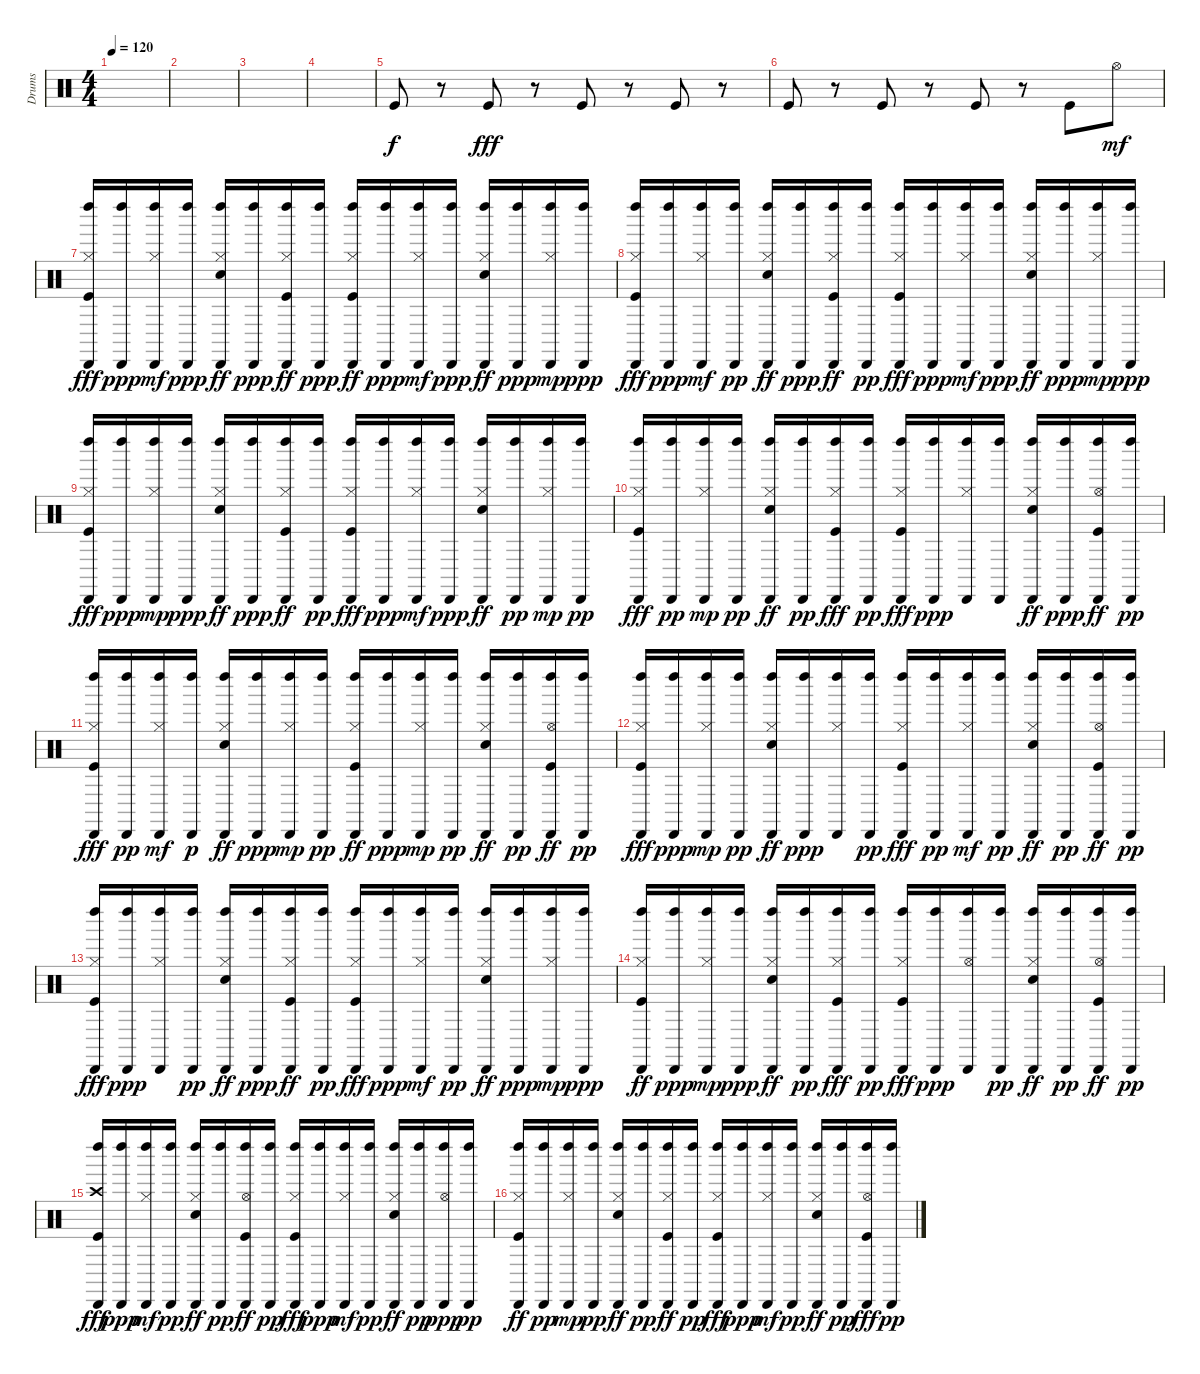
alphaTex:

\track ("Drums" "Drums") {instrument percussion}
\staff {score}
\articulation defaults
\ts (4 4)
\tempo 120
\clef neutral
\ks c
|
|
|
|
"Kick (hit)".8 r.8 "Kick (hit)".8{dy fff} r.8 "Kick (hit)".8 r.8 "Kick (hit)".8 r.8 |
"Kick (hit)".8 r.8 "Kick (hit)".8 r.8 "Kick (hit)".8 r.8 "Kick (hit)".8 "Hi-Hat (open)".8{dy mf} |
("Left Maraca (hit)" "Cabasa (hit)" "Hi-Hat (closed)" "Kick (hit)").16{dy fff} ("Left Maraca (hit)" "Cabasa (hit)").16{dy ppp} ("Left Maraca (hit)" "Cabasa (hit)" "Hi-Hat (closed)").16{dy mf} ("Left Maraca (hit)" "Cabasa (hit)").16{dy ppp} ("Left Maraca (hit)" "Cabasa (hit)" "Hi-Hat (closed)" "Electric Snare (hit)").16{dy ff} ("Left Maraca (hit)" "Cabasa (hit)").16{dy ppp} ("Left Maraca (hit)" "Cabasa (hit)" "Hi-Hat (closed)" "Kick (hit)").16{dy ff} ("Left Maraca (hit)" "Cabasa (hit)").16{dy ppp} ("Left Maraca (hit)" "Cabasa (hit)" "Hi-Hat (closed)" "Kick (hit)").16{dy ff} ("Left Maraca (hit)" "Cabasa (hit)").16{dy ppp} ("Left Maraca (hit)" "Cabasa (hit)" "Hi-Hat (closed)").16{dy mf} ("Left Maraca (hit)" "Cabasa (hit)").16{dy ppp} ("Left Maraca (hit)" "Cabasa (hit)" "Hi-Hat (closed)" "Electric Snare (hit)").16{dy ff} ("Left Maraca (hit)" "Cabasa (hit)").16{dy ppp} ("Left Maraca (hit)" "Cabasa (hit)" "Hi-Hat (closed)").16{dy mp} ("Left Maraca (hit)" "Cabasa (hit)").16{dy ppp} |
("Left Maraca (hit)" "Cabasa (hit)" "Hi-Hat (closed)" "Kick (hit)").16{dy fff} ("Left Maraca (hit)" "Cabasa (hit)").16{dy ppp} ("Left Maraca (hit)" "Cabasa (hit)" "Hi-Hat (closed)").16{dy mf} ("Left Maraca (hit)" "Cabasa (hit)").16{dy pp} ("Left Maraca (hit)" "Cabasa (hit)" "Hi-Hat (closed)" "Electric Snare (hit)").16{dy ff} ("Left Maraca (hit)" "Cabasa (hit)").16{dy ppp} ("Left Maraca (hit)" "Cabasa (hit)" "Hi-Hat (closed)" "Kick (hit)").16{dy ff} ("Left Maraca (hit)" "Cabasa (hit)").16{dy pp} ("Left Maraca (hit)" "Cabasa (hit)" "Hi-Hat (closed)" "Kick (hit)").16{dy fff} ("Left Maraca (hit)" "Cabasa (hit)").16{dy ppp} ("Left Maraca (hit)" "Cabasa (hit)" "Hi-Hat (closed)").16{dy mf} ("Left Maraca (hit)" "Cabasa (hit)").16{dy ppp} ("Left Maraca (hit)" "Cabasa (hit)" "Hi-Hat (closed)" "Electric Snare (hit)").16{dy ff} ("Left Maraca (hit)" "Cabasa (hit)").16{dy ppp} ("Left Maraca (hit)" "Cabasa (hit)" "Hi-Hat (closed)").16{dy mp} ("Left Maraca (hit)" "Cabasa (hit)").16{dy ppp} |
("Left Maraca (hit)" "Cabasa (hit)" "Hi-Hat (closed)" "Kick (hit)").16{dy fff} ("Left Maraca (hit)" "Cabasa (hit)").16{dy ppp} ("Left Maraca (hit)" "Cabasa (hit)" "Hi-Hat (closed)").16{dy mp} ("Left Maraca (hit)" "Cabasa (hit)").16{dy ppp} ("Left Maraca (hit)" "Cabasa (hit)" "Hi-Hat (closed)" "Electric Snare (hit)").16{dy ff} ("Left Maraca (hit)" "Cabasa (hit)").16{dy ppp} ("Left Maraca (hit)" "Cabasa (hit)" "Hi-Hat (closed)" "Kick (hit)").16{dy ff} ("Left Maraca (hit)" "Cabasa (hit)").16{dy pp} ("Left Maraca (hit)" "Cabasa (hit)" "Hi-Hat (closed)" "Kick (hit)").16{dy fff} ("Left Maraca (hit)" "Cabasa (hit)").16{dy ppp} ("Left Maraca (hit)" "Cabasa (hit)" "Hi-Hat (closed)").16{dy mf} ("Left Maraca (hit)" "Cabasa (hit)").16{dy ppp} ("Left Maraca (hit)" "Cabasa (hit)" "Hi-Hat (closed)" "Electric Snare (hit)").16{dy ff} ("Left Maraca (hit)" "Cabasa (hit)").16{dy pp} ("Left Maraca (hit)" "Cabasa (hit)" "Hi-Hat (closed)").16{dy mp} ("Left Maraca (hit)" "Cabasa (hit)").16{dy pp} |
("Left Maraca (hit)" "Cabasa (hit)" "Hi-Hat (closed)" "Kick (hit)").16{dy fff} ("Left Maraca (hit)" "Cabasa (hit)").16{dy pp} ("Left Maraca (hit)" "Cabasa (hit)" "Hi-Hat (closed)").16{dy mp} ("Left Maraca (hit)" "Cabasa (hit)").16{dy pp} ("Left Maraca (hit)" "Cabasa (hit)" "Hi-Hat (closed)" "Electric Snare (hit)").16{dy ff} ("Left Maraca (hit)" "Cabasa (hit)").16{dy pp} ("Left Maraca (hit)" "Cabasa (hit)" "Hi-Hat (closed)" "Kick (hit)").16{dy fff} ("Left Maraca (hit)" "Cabasa (hit)").16{dy pp} ("Left Maraca (hit)" "Cabasa (hit)" "Hi-Hat (closed)" "Kick (hit)").16{dy fff} ("Left Maraca (hit)" "Cabasa (hit)").16{dy ppp} ("Left Maraca (hit)" "Cabasa (hit)" "Hi-Hat (closed)").16 ("Left Maraca (hit)" "Cabasa (hit)").16 ("Left Maraca (hit)" "Cabasa (hit)" "Hi-Hat (closed)" "Electric Snare (hit)").16{dy ff} ("Left Maraca (hit)" "Cabasa (hit)").16{dy ppp} ("Left Maraca (hit)" "Cabasa (hit)" "Hi-Hat (open)" "Kick (hit)").16{dy ff} ("Left Maraca (hit)" "Cabasa (hit)").16{dy pp} |
("Left Maraca (hit)" "Cabasa (hit)" "Hi-Hat (closed)" "Kick (hit)").16{dy fff} ("Left Maraca (hit)" "Cabasa (hit)").16{dy pp} ("Left Maraca (hit)" "Cabasa (hit)" "Hi-Hat (closed)").16{dy mf} ("Left Maraca (hit)" "Cabasa (hit)").16{dy p} ("Left Maraca (hit)" "Cabasa (hit)" "Hi-Hat (closed)" "Electric Snare (hit)").16{dy ff} ("Left Maraca (hit)" "Cabasa (hit)").16{dy ppp} ("Left Maraca (hit)" "Cabasa (hit)" "Hi-Hat (closed)").16{dy mp} ("Left Maraca (hit)" "Cabasa (hit)").16{dy pp} ("Left Maraca (hit)" "Cabasa (hit)" "Hi-Hat (closed)" "Kick (hit)").16{dy ff} ("Left Maraca (hit)" "Cabasa (hit)").16{dy ppp} ("Left Maraca (hit)" "Cabasa (hit)" "Hi-Hat (closed)").16{dy mp} ("Left Maraca (hit)" "Cabasa (hit)").16{dy pp} ("Left Maraca (hit)" "Cabasa (hit)" "Hi-Hat (closed)" "Electric Snare (hit)").16{dy ff} ("Left Maraca (hit)" "Cabasa (hit)").16{dy pp} ("Left Maraca (hit)" "Cabasa (hit)" "Hi-Hat (open)" "Kick (hit)").16{dy ff} ("Left Maraca (hit)" "Cabasa (hit)").16{dy pp} |
("Left Maraca (hit)" "Cabasa (hit)" "Hi-Hat (closed)" "Kick (hit)").16{dy fff} ("Left Maraca (hit)" "Cabasa (hit)").16{dy ppp} ("Left Maraca (hit)" "Cabasa (hit)" "Hi-Hat (closed)").16{dy mp} ("Left Maraca (hit)" "Cabasa (hit)").16{dy pp} ("Left Maraca (hit)" "Cabasa (hit)" "Hi-Hat (closed)" "Electric Snare (hit)").16{dy ff} ("Left Maraca (hit)" "Cabasa (hit)").16{dy ppp} ("Left Maraca (hit)" "Cabasa (hit)" "Hi-Hat (closed)").16 ("Left Maraca (hit)" "Cabasa (hit)").16{dy pp} ("Left Maraca (hit)" "Cabasa (hit)" "Hi-Hat (closed)" "Kick (hit)").16{dy fff} ("Left Maraca (hit)" "Cabasa (hit)").16{dy pp} ("Left Maraca (hit)" "Cabasa (hit)" "Hi-Hat (closed)").16{dy mf} ("Left Maraca (hit)" "Cabasa (hit)").16{dy pp} ("Left Maraca (hit)" "Cabasa (hit)" "Hi-Hat (closed)" "Electric Snare (hit)").16{dy ff} ("Left Maraca (hit)" "Cabasa (hit)").16{dy pp} ("Left Maraca (hit)" "Cabasa (hit)" "Hi-Hat (open)" "Kick (hit)").16{dy ff} ("Left Maraca (hit)" "Cabasa (hit)").16{dy pp} |
("Left Maraca (hit)" "Cabasa (hit)" "Hi-Hat (closed)" "Kick (hit)").16{dy fff} ("Left Maraca (hit)" "Cabasa (hit)").16{dy ppp} ("Left Maraca (hit)" "Cabasa (hit)" "Hi-Hat (closed)").16 ("Left Maraca (hit)" "Cabasa (hit)").16{dy pp} ("Left Maraca (hit)" "Cabasa (hit)" "Hi-Hat (closed)" "Electric Snare (hit)").16{dy ff} ("Left Maraca (hit)" "Cabasa (hit)").16{dy ppp} ("Left Maraca (hit)" "Cabasa (hit)" "Hi-Hat (closed)" "Kick (hit)").16{dy ff} ("Left Maraca (hit)" "Cabasa (hit)").16{dy pp} ("Left Maraca (hit)" "Cabasa (hit)" "Hi-Hat (closed)" "Kick (hit)").16{dy fff} ("Left Maraca (hit)" "Cabasa (hit)").16{dy ppp} ("Left Maraca (hit)" "Cabasa (hit)" "Hi-Hat (closed)").16{dy mf} ("Left Maraca (hit)" "Cabasa (hit)").16{dy pp} ("Left Maraca (hit)" "Cabasa (hit)" "Hi-Hat (closed)" "Electric Snare (hit)").16{dy ff} ("Left Maraca (hit)" "Cabasa (hit)").16{dy ppp} ("Left Maraca (hit)" "Cabasa (hit)" "Hi-Hat (closed)").16{dy mp} ("Left Maraca (hit)" "Cabasa (hit)").16{dy ppp} |
("Left Maraca (hit)" "Cabasa (hit)" "Hi-Hat (closed)" "Kick (hit)").16{dy ff} ("Left Maraca (hit)" "Cabasa (hit)").16{dy ppp} ("Left Maraca (hit)" "Cabasa (hit)" "Hi-Hat (closed)").16{dy mp} ("Left Maraca (hit)" "Cabasa (hit)").16{dy ppp} ("Left Maraca (hit)" "Cabasa (hit)" "Hi-Hat (closed)" "Electric Snare (hit)").16{dy ff} ("Left Maraca (hit)" "Cabasa (hit)").16{dy pp} ("Left Maraca (hit)" "Cabasa (hit)" "Hi-Hat (closed)" "Kick (hit)").16{dy fff} ("Left Maraca (hit)" "Cabasa (hit)").16{dy pp} ("Left Maraca (hit)" "Cabasa (hit)" "Hi-Hat (closed)" "Kick (hit)").16{dy fff} ("Left Maraca (hit)" "Cabasa (hit)").16{dy ppp} ("Left Maraca (hit)" "Cabasa (hit)" "Hi-Hat (open)").16 ("Left Maraca (hit)" "Cabasa (hit)").16{dy pp} ("Left Maraca (hit)" "Cabasa (hit)" "Hi-Hat (closed)" "Electric Snare (hit)").16{dy ff} ("Left Maraca (hit)" "Cabasa (hit)").16{dy pp} ("Left Maraca (hit)" "Cabasa (hit)" "Hi-Hat (open)" "Kick (hit)").16{dy ff} ("Left Maraca (hit)" "Cabasa (hit)").16{dy pp} |
("Left Maraca (hit)" "Cabasa (hit)" "Crash high (hit)" "Kick (hit)").16{dy fff} ("Left Maraca (hit)" "Cabasa (hit)").16{dy ppp} ("Left Maraca (hit)" "Cabasa (hit)" "Hi-Hat (closed)").16{dy mf} ("Left Maraca (hit)" "Cabasa (hit)").16{dy pp} ("Left Maraca (hit)" "Cabasa (hit)" "Hi-Hat (closed)" "Electric Snare (hit)").16{dy ff} ("Left Maraca (hit)" "Cabasa (hit)").16{dy pp} ("Left Maraca (hit)" "Cabasa (hit)" "Hi-Hat (open)" "Kick (hit)").16{dy ff} ("Left Maraca (hit)" "Cabasa (hit)").16{dy pp} ("Left Maraca (hit)" "Cabasa (hit)" "Hi-Hat (closed)" "Kick (hit)").16{dy fff} ("Left Maraca (hit)" "Cabasa (hit)").16{dy ppp} ("Left Maraca (hit)" "Cabasa (hit)" "Hi-Hat (closed)").16{dy mf} ("Left Maraca (hit)" "Cabasa (hit)").16{dy pp} ("Left Maraca (hit)" "Cabasa (hit)" "Hi-Hat (closed)" "Electric Snare (hit)").16{dy ff} ("Left Maraca (hit)" "Cabasa (hit)").16{dy pp} ("Left Maraca (hit)" "Cabasa (hit)" "Hi-Hat (open)").16{dy ppp} ("Left Maraca (hit)" "Cabasa (hit)").16{dy pp} |
("Left Maraca (hit)" "Cabasa (hit)" "Hi-Hat (closed)" "Kick (hit)").16{dy ff} ("Left Maraca (hit)" "Cabasa (hit)").16{dy pp} ("Left Maraca (hit)" "Cabasa (hit)" "Hi-Hat (closed)").16{dy mp} ("Left Maraca (hit)" "Cabasa (hit)").16{dy pp} ("Left Maraca (hit)" "Cabasa (hit)" "Hi-Hat (closed)" "Electric Snare (hit)").16{dy ff} ("Left Maraca (hit)" "Cabasa (hit)").16{dy pp} ("Left Maraca (hit)" "Cabasa (hit)" "Hi-Hat (closed)" "Kick (hit)").16{dy ff} ("Left Maraca (hit)" "Cabasa (hit)").16{dy pp} ("Left Maraca (hit)" "Cabasa (hit)" "Hi-Hat (closed)" "Kick (hit)").16{dy fff} ("Left Maraca (hit)" "Cabasa (hit)").16{dy ppp} ("Left Maraca (hit)" "Cabasa (hit)" "Hi-Hat (closed)").16{dy mf} ("Left Maraca (hit)" "Cabasa (hit)").16{dy pp} ("Left Maraca (hit)" "Cabasa (hit)" "Hi-Hat (closed)" "Electric Snare (hit)").16{dy ff} ("Left Maraca (hit)" "Cabasa (hit)").16{dy pp} ("Left Maraca (hit)" "Cabasa (hit)" "Hi-Hat (open)" "Kick (hit)").16{dy fff} ("Left Maraca (hit)" "Cabasa (hit)").16{dy pp}
